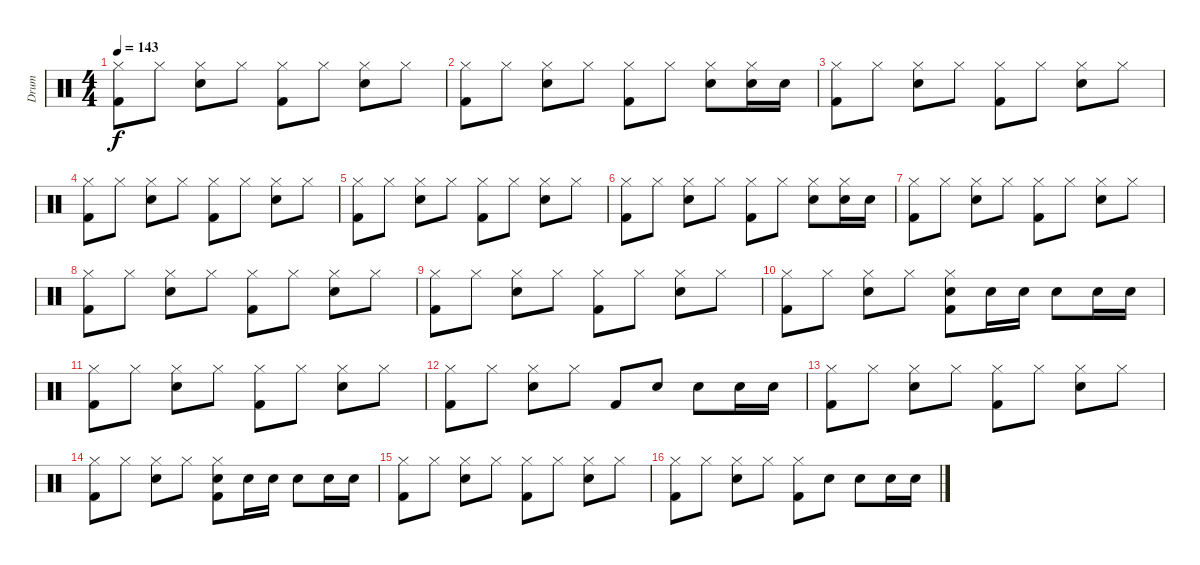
\track ("Drum" "Drum") {instrument percussion}
\staff {score}
\articulation defaults
\ts (4 4)
\tempo 143
\clef neutral
\ks c
("Hi-Hat (closed)" "Kick (hit) 2").8{dy f} "Hi-Hat (closed)".8 ("Hi-Hat (closed)" "Electric Snare (hit)").8 "Hi-Hat (closed)".8 ("Hi-Hat (closed)" "Kick (hit) 2").8 "Hi-Hat (closed)".8 ("Hi-Hat (closed)" "Electric Snare (hit)").8 "Hi-Hat (closed)".8 |
("Hi-Hat (closed)" "Kick (hit) 2").8 "Hi-Hat (closed)".8 ("Hi-Hat (closed)" "Electric Snare (hit)").8 "Hi-Hat (closed)".8 ("Hi-Hat (closed)" "Kick (hit) 2").8 "Hi-Hat (closed)".8 ("Hi-Hat (closed)" "Electric Snare (hit)").8 ("Hi-Hat (closed)" "Electric Snare (hit)").16 "Electric Snare (hit)".16 |
("Hi-Hat (closed)" "Kick (hit) 2").8 "Hi-Hat (closed)".8 ("Hi-Hat (closed)" "Electric Snare (hit)").8 "Hi-Hat (closed)".8 ("Hi-Hat (closed)" "Kick (hit) 2").8 "Hi-Hat (closed)".8 ("Hi-Hat (closed)" "Electric Snare (hit)").8 "Hi-Hat (closed)".8 |
("Hi-Hat (closed)" "Kick (hit) 2").8 "Hi-Hat (closed)".8 ("Hi-Hat (closed)" "Electric Snare (hit)").8 "Hi-Hat (closed)".8 ("Hi-Hat (closed)" "Kick (hit) 2").8 "Hi-Hat (closed)".8 ("Hi-Hat (closed)" "Electric Snare (hit)").8 "Hi-Hat (closed)".8 |
("Hi-Hat (closed)" "Kick (hit) 2").8 "Hi-Hat (closed)".8 ("Hi-Hat (closed)" "Electric Snare (hit)").8 "Hi-Hat (closed)".8 ("Hi-Hat (closed)" "Kick (hit) 2").8 "Hi-Hat (closed)".8 ("Hi-Hat (closed)" "Electric Snare (hit)").8 "Hi-Hat (closed)".8 |
("Hi-Hat (closed)" "Kick (hit) 2").8 "Hi-Hat (closed)".8 ("Hi-Hat (closed)" "Electric Snare (hit)").8 "Hi-Hat (closed)".8 ("Hi-Hat (closed)" "Kick (hit) 2").8 "Hi-Hat (closed)".8 ("Hi-Hat (closed)" "Electric Snare (hit)").8 ("Hi-Hat (closed)" "Electric Snare (hit)").16 "Electric Snare (hit)".16 |
("Hi-Hat (closed)" "Kick (hit) 2").8 "Hi-Hat (closed)".8 ("Hi-Hat (closed)" "Electric Snare (hit)").8 "Hi-Hat (closed)".8 ("Hi-Hat (closed)" "Kick (hit) 2").8 "Hi-Hat (closed)".8 ("Hi-Hat (closed)" "Electric Snare (hit)").8 "Hi-Hat (closed)".8 |
("Hi-Hat (closed)" "Kick (hit) 2").8 "Hi-Hat (closed)".8 ("Hi-Hat (closed)" "Electric Snare (hit)").8 "Hi-Hat (closed)".8 ("Hi-Hat (closed)" "Kick (hit) 2").8 "Hi-Hat (closed)".8 ("Hi-Hat (closed)" "Electric Snare (hit)").8 "Hi-Hat (closed)".8 |
("Hi-Hat (closed)" "Kick (hit) 2").8 "Hi-Hat (closed)".8 ("Hi-Hat (closed)" "Electric Snare (hit)").8 "Hi-Hat (closed)".8 ("Hi-Hat (closed)" "Kick (hit) 2").8 "Hi-Hat (closed)".8 ("Hi-Hat (closed)" "Electric Snare (hit)").8 "Hi-Hat (closed)".8 |
("Hi-Hat (closed)" "Kick (hit) 2").8 "Hi-Hat (closed)".8 ("Hi-Hat (closed)" "Electric Snare (hit)").8 "Hi-Hat (closed)".8 ("Hi-Hat (closed)" "Electric Snare (hit)" "Kick (hit) 2").8 "Electric Snare (hit)".16 "Electric Snare (hit)".16 "Electric Snare (hit)".8 "Electric Snare (hit)".16 "Electric Snare (hit)".16 |
("Hi-Hat (closed)" "Kick (hit) 2").8 "Hi-Hat (closed)".8 ("Hi-Hat (closed)" "Electric Snare (hit)").8 "Hi-Hat (closed)".8 ("Hi-Hat (closed)" "Kick (hit) 2").8 "Hi-Hat (closed)".8 ("Hi-Hat (closed)" "Electric Snare (hit)").8 "Hi-Hat (closed)".8 |
("Hi-Hat (closed)" "Kick (hit) 2").8 "Hi-Hat (closed)".8 ("Hi-Hat (closed)" "Electric Snare (hit)").8 "Hi-Hat (closed)".8 "Kick (hit) 2".8 "Electric Snare (hit)".8 "Electric Snare (hit)".8 "Electric Snare (hit)".16 "Electric Snare (hit)".16 |
("Hi-Hat (closed)" "Kick (hit) 2").8 "Hi-Hat (closed)".8 ("Hi-Hat (closed)" "Electric Snare (hit)").8 "Hi-Hat (closed)".8 ("Hi-Hat (closed)" "Kick (hit) 2").8 "Hi-Hat (closed)".8 ("Hi-Hat (closed)" "Electric Snare (hit)").8 "Hi-Hat (closed)".8 |
("Hi-Hat (closed)" "Kick (hit) 2").8 "Hi-Hat (closed)".8 ("Hi-Hat (closed)" "Electric Snare (hit)").8 "Hi-Hat (closed)".8 ("Hi-Hat (closed)" "Electric Snare (hit)" "Kick (hit) 2").8 "Electric Snare (hit)".16 "Electric Snare (hit)".16 "Electric Snare (hit)".8 "Electric Snare (hit)".16 "Electric Snare (hit)".16 |
("Hi-Hat (closed)" "Kick (hit) 2").8 "Hi-Hat (closed)".8 ("Hi-Hat (closed)" "Electric Snare (hit)").8 "Hi-Hat (closed)".8 ("Hi-Hat (closed)" "Kick (hit) 2").8 "Hi-Hat (closed)".8 ("Hi-Hat (closed)" "Electric Snare (hit)").8 "Hi-Hat (closed)".8 |
("Hi-Hat (closed)" "Kick (hit) 2").8 "Hi-Hat (closed)".8 ("Hi-Hat (closed)" "Electric Snare (hit)").8 "Hi-Hat (closed)".8 ("Hi-Hat (closed)" "Kick (hit) 2").8 "Electric Snare (hit)".8 "Electric Snare (hit)".8 "Electric Snare (hit)".16 "Electric Snare (hit)".16
